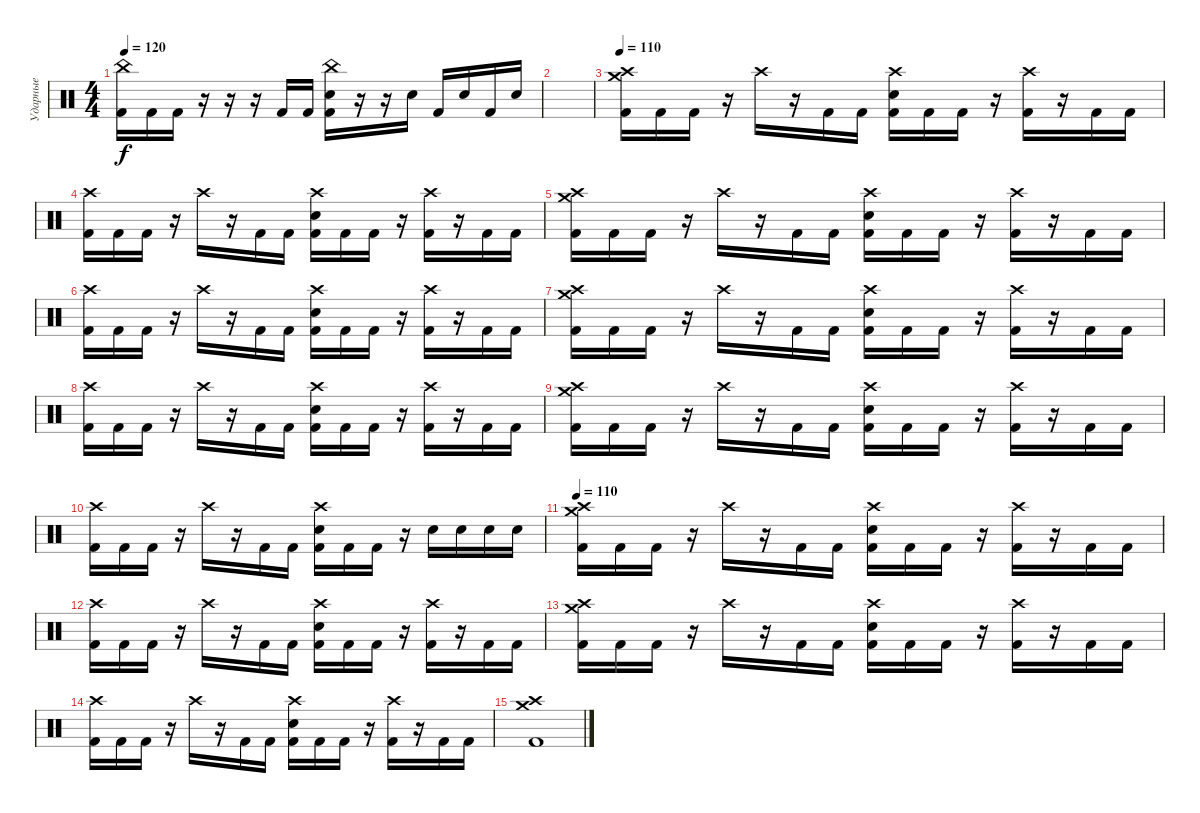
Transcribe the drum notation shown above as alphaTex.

\track ("Ударные" "Ударные") {instrument percussion}
\staff {score}
\articulation defaults
\ts (4 4)
\tempo 120
\clef neutral
\ks c
("China (hit)" "Kick (hit) 2").16{dy f} "Kick (hit) 2".16 "Kick (hit) 2".16 r.16 r.16 r.16 "Kick (hit) 2".16 "Kick (hit) 2".16 ("Snare (hit) 2" "China (hit)" "Kick (hit) 2").16 r.16 r.16 "Snare (hit)".16 "Kick (hit) 2".16 "Snare (hit)".16 "Kick (hit) 2".16 "Snare (hit)".16 |
|
\tempo 110
("Crash medium (hit)" "Crash high (hit)" "Kick (hit) 2").16 "Kick (hit) 2".16 "Kick (hit) 2".16 r.16 "Crash high (hit)".16 r.16 "Kick (hit) 2".16 "Kick (hit) 2".16 ("Crash high (hit)" "Snare (hit) 2" "Kick (hit) 2").16 "Kick (hit) 2".16 "Kick (hit) 2".16 r.16 ("Crash high (hit)" "Kick (hit) 2").16 r.16 "Kick (hit) 2".16 "Kick (hit) 2".16 |
("Crash high (hit)" "Kick (hit) 2").16 "Kick (hit) 2".16 "Kick (hit) 2".16 r.16 "Crash high (hit)".16 r.16 "Kick (hit) 2".16 "Kick (hit) 2".16 ("Crash high (hit)" "Snare (hit) 2" "Kick (hit) 2").16 "Kick (hit) 2".16 "Kick (hit) 2".16 r.16 ("Crash high (hit)" "Kick (hit) 2").16 r.16 "Kick (hit) 2".16 "Kick (hit) 2".16 |
("Crash medium (hit)" "Crash high (hit)" "Kick (hit) 2").16 "Kick (hit) 2".16 "Kick (hit) 2".16 r.16 "Crash high (hit)".16 r.16 "Kick (hit) 2".16 "Kick (hit) 2".16 ("Crash high (hit)" "Snare (hit) 2" "Kick (hit) 2").16 "Kick (hit) 2".16 "Kick (hit) 2".16 r.16 ("Crash high (hit)" "Kick (hit) 2").16 r.16 "Kick (hit) 2".16 "Kick (hit) 2".16 |
("Crash high (hit)" "Kick (hit) 2").16 "Kick (hit) 2".16 "Kick (hit) 2".16 r.16 "Crash high (hit)".16 r.16 "Kick (hit) 2".16 "Kick (hit) 2".16 ("Crash high (hit)" "Snare (hit) 2" "Kick (hit) 2").16 "Kick (hit) 2".16 "Kick (hit) 2".16 r.16 ("Crash high (hit)" "Kick (hit) 2").16 r.16 "Kick (hit) 2".16 "Kick (hit) 2".16 |
("Crash medium (hit)" "Crash high (hit)" "Kick (hit) 2").16 "Kick (hit) 2".16 "Kick (hit) 2".16 r.16 "Crash high (hit)".16 r.16 "Kick (hit) 2".16 "Kick (hit) 2".16 ("Crash high (hit)" "Snare (hit) 2" "Kick (hit) 2").16 "Kick (hit) 2".16 "Kick (hit) 2".16 r.16 ("Crash high (hit)" "Kick (hit) 2").16 r.16 "Kick (hit) 2".16 "Kick (hit) 2".16 |
("Crash high (hit)" "Kick (hit) 2").16 "Kick (hit) 2".16 "Kick (hit) 2".16 r.16 "Crash high (hit)".16 r.16 "Kick (hit) 2".16 "Kick (hit) 2".16 ("Crash high (hit)" "Snare (hit) 2" "Kick (hit) 2").16 "Kick (hit) 2".16 "Kick (hit) 2".16 r.16 ("Crash high (hit)" "Kick (hit) 2").16 r.16 "Kick (hit) 2".16 "Kick (hit) 2".16 |
("Crash medium (hit)" "Crash high (hit)" "Kick (hit) 2").16 "Kick (hit) 2".16 "Kick (hit) 2".16 r.16 "Crash high (hit)".16 r.16 "Kick (hit) 2".16 "Kick (hit) 2".16 ("Crash high (hit)" "Snare (hit) 2" "Kick (hit) 2").16 "Kick (hit) 2".16 "Kick (hit) 2".16 r.16 ("Crash high (hit)" "Kick (hit) 2").16 r.16 "Kick (hit) 2".16 "Kick (hit) 2".16 |
("Crash high (hit)" "Kick (hit) 2").16 "Kick (hit) 2".16 "Kick (hit) 2".16 r.16 "Crash high (hit)".16 r.16 "Kick (hit) 2".16 "Kick (hit) 2".16 ("Crash high (hit)" "Snare (hit) 2" "Kick (hit) 2").16 "Kick (hit) 2".16 "Kick (hit) 2".16 r.16 "Electric Snare (hit)".16 "Electric Snare (hit)".16 "Electric Snare (hit)".16 "Electric Snare (hit)".16 |
\tempo 110
("Crash medium (hit)" "Crash high (hit)" "Kick (hit) 2").16 "Kick (hit) 2".16 "Kick (hit) 2".16 r.16 "Crash high (hit)".16 r.16 "Kick (hit) 2".16 "Kick (hit) 2".16 ("Crash high (hit)" "Snare (hit) 2" "Kick (hit) 2").16 "Kick (hit) 2".16 "Kick (hit) 2".16 r.16 ("Crash high (hit)" "Kick (hit) 2").16 r.16 "Kick (hit) 2".16 "Kick (hit) 2".16 |
("Crash high (hit)" "Kick (hit) 2").16 "Kick (hit) 2".16 "Kick (hit) 2".16 r.16 "Crash high (hit)".16 r.16 "Kick (hit) 2".16 "Kick (hit) 2".16 ("Crash high (hit)" "Snare (hit) 2" "Kick (hit) 2").16 "Kick (hit) 2".16 "Kick (hit) 2".16 r.16 ("Crash high (hit)" "Kick (hit) 2").16 r.16 "Kick (hit) 2".16 "Kick (hit) 2".16 |
("Crash medium (hit)" "Crash high (hit)" "Kick (hit) 2").16 "Kick (hit) 2".16 "Kick (hit) 2".16 r.16 "Crash high (hit)".16 r.16 "Kick (hit) 2".16 "Kick (hit) 2".16 ("Crash high (hit)" "Snare (hit) 2" "Kick (hit) 2").16 "Kick (hit) 2".16 "Kick (hit) 2".16 r.16 ("Crash high (hit)" "Kick (hit) 2").16 r.16 "Kick (hit) 2".16 "Kick (hit) 2".16 |
("Crash high (hit)" "Kick (hit) 2").16 "Kick (hit) 2".16 "Kick (hit) 2".16 r.16 "Crash high (hit)".16 r.16 "Kick (hit) 2".16 "Kick (hit) 2".16 ("Crash high (hit)" "Snare (hit) 2" "Kick (hit) 2").16 "Kick (hit) 2".16 "Kick (hit) 2".16 r.16 ("Crash high (hit)" "Kick (hit) 2").16 r.16 "Kick (hit) 2".16 "Kick (hit) 2".16 |
("Crash high (hit)" "Crash medium (hit)" "Kick (hit) 2").1
